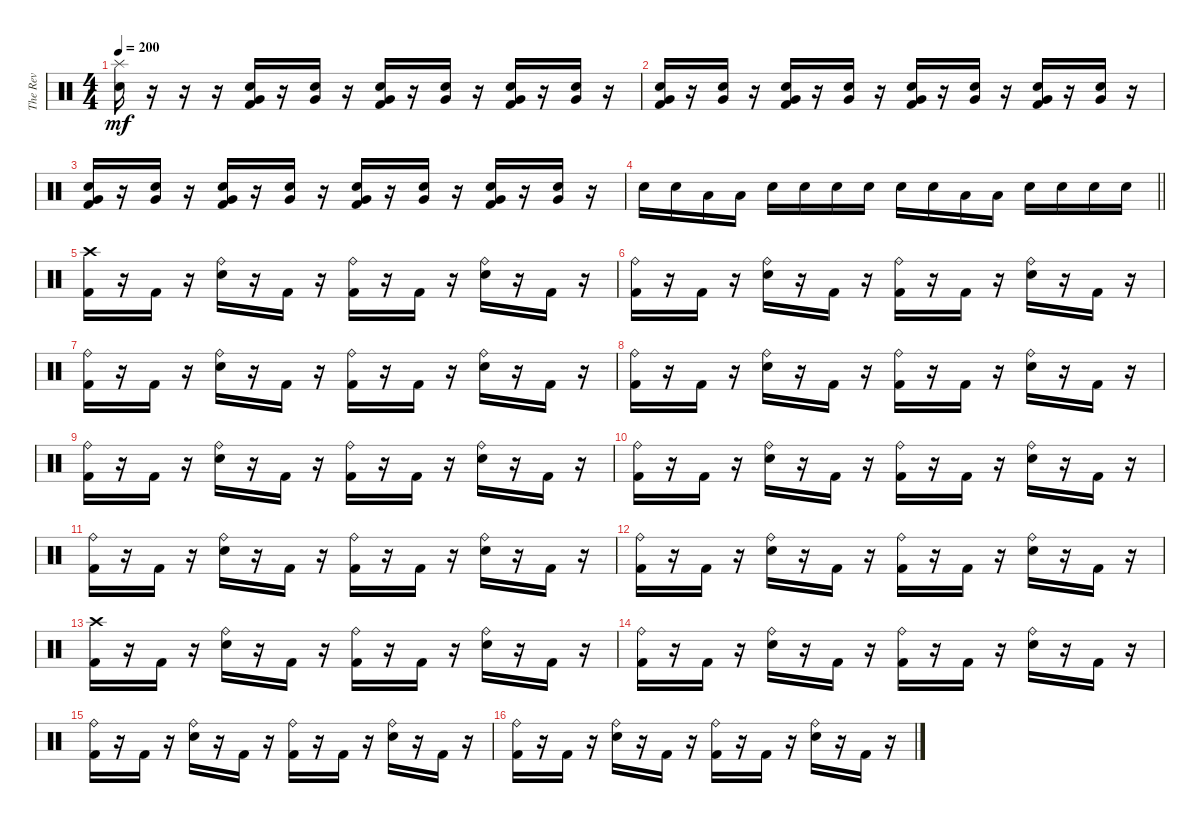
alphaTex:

\track ("The Rev" "The Rev") {instrument percussion}
\staff {score}
\articulation defaults
\ts (4 4)
\tempo 200
\clef neutral
\ks c
("Splash (hit)" "Electric Snare (hit)").16{dy mf} r.16 r.16 r.16 ("Very Low Tom (hit)" "Electric Snare (hit)" "Kick (hit) 2").16 r.16 ("Very Low Tom (hit)" "Electric Snare (hit)").16 r.16 ("Very Low Tom (hit)" "Electric Snare (hit)" "Kick (hit) 2").16 r.16 ("Very Low Tom (hit)" "Electric Snare (hit)").16 r.16 ("Very Low Tom (hit)" "Electric Snare (hit)" "Kick (hit) 2").16 r.16 ("Very Low Tom (hit)" "Electric Snare (hit)").16 r.16 |
("Very Low Tom (hit)" "Electric Snare (hit)" "Kick (hit) 2").16 r.16 ("Very Low Tom (hit)" "Electric Snare (hit)").16 r.16 ("Very Low Tom (hit)" "Electric Snare (hit)" "Kick (hit) 2").16 r.16 ("Very Low Tom (hit)" "Electric Snare (hit)").16 r.16 ("Very Low Tom (hit)" "Electric Snare (hit)" "Kick (hit) 2").16 r.16 ("Very Low Tom (hit)" "Electric Snare (hit)").16 r.16 ("Very Low Tom (hit)" "Electric Snare (hit)" "Kick (hit) 2").16 r.16 ("Very Low Tom (hit)" "Electric Snare (hit)").16 r.16 |
("Very Low Tom (hit)" "Electric Snare (hit)" "Kick (hit) 2").16 r.16 ("Very Low Tom (hit)" "Electric Snare (hit)").16 r.16 ("Very Low Tom (hit)" "Electric Snare (hit)" "Kick (hit) 2").16 r.16 ("Very Low Tom (hit)" "Electric Snare (hit)").16 r.16 ("Very Low Tom (hit)" "Electric Snare (hit)" "Kick (hit) 2").16 r.16 ("Very Low Tom (hit)" "Electric Snare (hit)").16 r.16 ("Very Low Tom (hit)" "Electric Snare (hit)" "Kick (hit) 2").16 r.16 ("Very Low Tom (hit)" "Electric Snare (hit)").16 r.16 |
\barLineRight lightlight "Electric Snare (hit)".16 "Electric Snare (hit)".16 "Low Tom (hit)".16 "Low Tom (hit)".16 "Electric Snare (hit)".16 "Electric Snare (hit)".16 "Electric Snare (hit)".16 "Electric Snare (hit)".16 "Electric Snare (hit)".16 "Electric Snare (hit)".16 "Low Tom (hit)".16 "Low Tom (hit)".16 "Electric Snare (hit)".16 "Electric Snare (hit)".16 "Electric Snare (hit)".16 "Electric Snare (hit)".16
|
("Crash high (hit)" "Kick (hit) 2").16 r.16 "Kick (hit) 2".16 r.16 ("Ride (bell)" "Electric Snare (hit)").16 r.16 "Kick (hit) 2".16 r.16 ("Ride (bell)" "Kick (hit) 2").16 r.16 "Kick (hit) 2".16 r.16 ("Ride (bell)" "Electric Snare (hit)").16 r.16 "Kick (hit) 2".16 r.16 |
("Ride (bell)" "Kick (hit) 2").16 r.16 "Kick (hit) 2".16 r.16 ("Ride (bell)" "Electric Snare (hit)").16 r.16 "Kick (hit) 2".16 r.16 ("Ride (bell)" "Kick (hit) 2").16 r.16 "Kick (hit) 2".16 r.16 ("Ride (bell)" "Electric Snare (hit)").16 r.16 "Kick (hit) 2".16 r.16 |
("Ride (bell)" "Kick (hit) 2").16 r.16 "Kick (hit) 2".16 r.16 ("Ride (bell)" "Electric Snare (hit)").16 r.16 "Kick (hit) 2".16 r.16 ("Ride (bell)" "Kick (hit) 2").16 r.16 "Kick (hit) 2".16 r.16 ("Ride (bell)" "Electric Snare (hit)").16 r.16 "Kick (hit) 2".16 r.16 |
("Ride (bell)" "Kick (hit) 2").16 r.16 "Kick (hit) 2".16 r.16 ("Ride (bell)" "Electric Snare (hit)").16 r.16 "Kick (hit) 2".16 r.16 ("Ride (bell)" "Kick (hit) 2").16 r.16 "Kick (hit) 2".16 r.16 ("Ride (bell)" "Electric Snare (hit)").16 r.16 "Kick (hit) 2".16 r.16 |
("Ride (bell)" "Kick (hit) 2").16 r.16 "Kick (hit) 2".16 r.16 ("Ride (bell)" "Electric Snare (hit)").16 r.16 "Kick (hit) 2".16 r.16 ("Ride (bell)" "Kick (hit) 2").16 r.16 "Kick (hit) 2".16 r.16 ("Ride (bell)" "Electric Snare (hit)").16 r.16 "Kick (hit) 2".16 r.16 |
("Ride (bell)" "Kick (hit) 2").16 r.16 "Kick (hit) 2".16 r.16 ("Ride (bell)" "Electric Snare (hit)").16 r.16 "Kick (hit) 2".16 r.16 ("Ride (bell)" "Kick (hit) 2").16 r.16 "Kick (hit) 2".16 r.16 ("Ride (bell)" "Electric Snare (hit)").16 r.16 "Kick (hit) 2".16 r.16 |
("Ride (bell)" "Kick (hit) 2").16 r.16 "Kick (hit) 2".16 r.16 ("Ride (bell)" "Electric Snare (hit)").16 r.16 "Kick (hit) 2".16 r.16 ("Ride (bell)" "Kick (hit) 2").16 r.16 "Kick (hit) 2".16 r.16 ("Ride (bell)" "Electric Snare (hit)").16 r.16 "Kick (hit) 2".16 r.16 |
("Ride (bell)" "Kick (hit) 2").16 r.16 "Kick (hit) 2".16 r.16 ("Ride (bell)" "Electric Snare (hit)").16 r.16 "Kick (hit) 2".16 r.16 ("Ride (bell)" "Kick (hit) 2").16 r.16 "Kick (hit) 2".16 r.16 ("Ride (bell)" "Electric Snare (hit)").16 r.16 "Kick (hit) 2".16 r.16 |
("Crash high (hit)" "Kick (hit) 2").16 r.16 "Kick (hit) 2".16 r.16 ("Ride (bell)" "Electric Snare (hit)").16 r.16 "Kick (hit) 2".16 r.16 ("Ride (bell)" "Kick (hit) 2").16 r.16 "Kick (hit) 2".16 r.16 ("Ride (bell)" "Electric Snare (hit)").16 r.16 "Kick (hit) 2".16 r.16 |
("Ride (bell)" "Kick (hit) 2").16 r.16 "Kick (hit) 2".16 r.16 ("Ride (bell)" "Electric Snare (hit)").16 r.16 "Kick (hit) 2".16 r.16 ("Ride (bell)" "Kick (hit) 2").16 r.16 "Kick (hit) 2".16 r.16 ("Ride (bell)" "Electric Snare (hit)").16 r.16 "Kick (hit) 2".16 r.16 |
("Ride (bell)" "Kick (hit) 2").16 r.16 "Kick (hit) 2".16 r.16 ("Ride (bell)" "Electric Snare (hit)").16 r.16 "Kick (hit) 2".16 r.16 ("Ride (bell)" "Kick (hit) 2").16 r.16 "Kick (hit) 2".16 r.16 ("Ride (bell)" "Electric Snare (hit)").16 r.16 "Kick (hit) 2".16 r.16 |
("Ride (bell)" "Kick (hit) 2").16 r.16 "Kick (hit) 2".16 r.16 ("Ride (bell)" "Electric Snare (hit)").16 r.16 "Kick (hit) 2".16 r.16 ("Ride (bell)" "Kick (hit) 2").16 r.16 "Kick (hit) 2".16 r.16 ("Ride (bell)" "Electric Snare (hit)").16 r.16 "Kick (hit) 2".16 r.16
